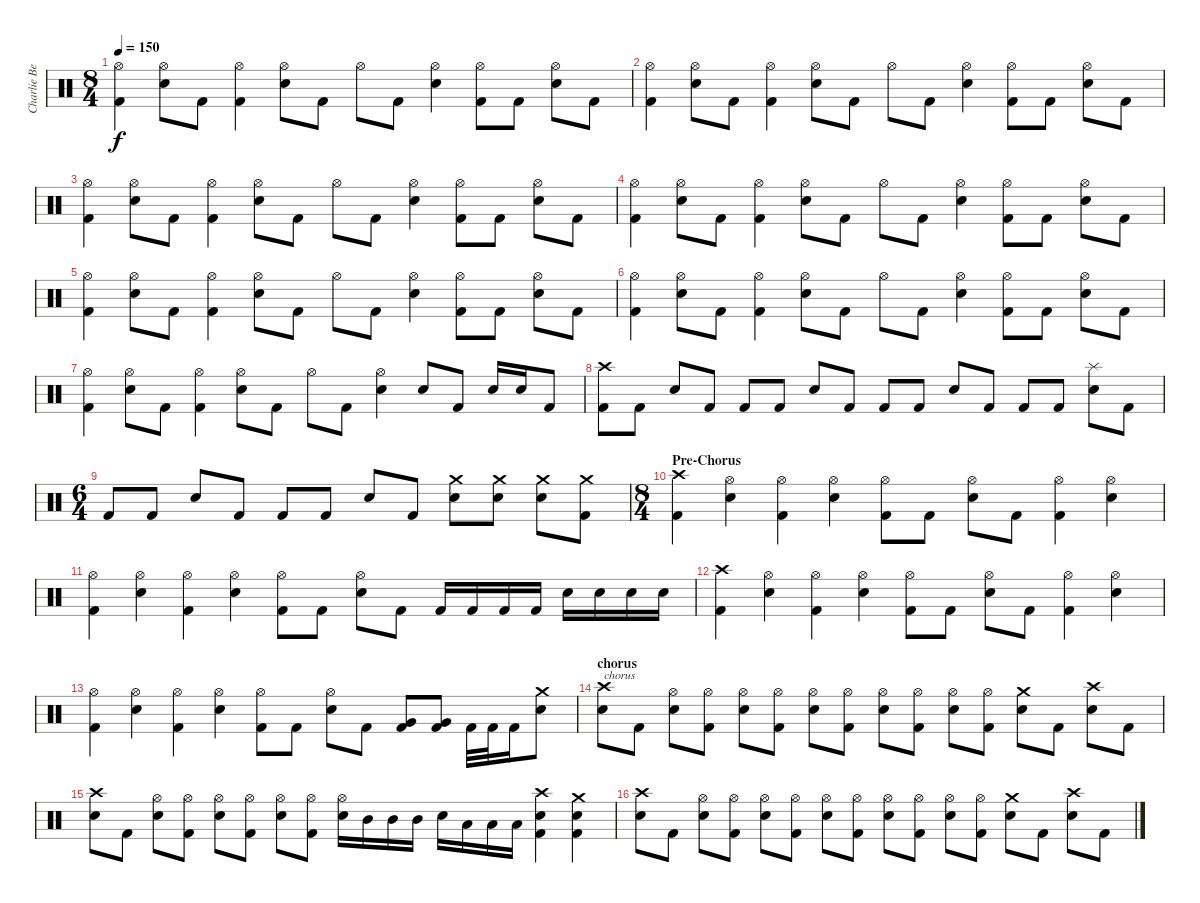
\track ("Charlie Benante" "Charlie Be") {instrument percussion}
\staff {score}
\articulation defaults
\ts (8 4)
\tempo 150
\clef neutral
\ks c
("Hi-Hat (open)" "Kick (hit) 2").4{dy f} ("Hi-Hat (open)" "Electric Snare (hit)").8 "Kick (hit) 2".8 ("Hi-Hat (open)" "Kick (hit) 2").4 ("Hi-Hat (open)" "Electric Snare (hit)").8 "Kick (hit) 2".8 "Hi-Hat (open)".8 "Kick (hit) 2".8 ("Hi-Hat (open)" "Electric Snare (hit)").4 ("Hi-Hat (open)" "Kick (hit) 2").8 "Kick (hit) 2".8 ("Hi-Hat (open)" "Electric Snare (hit)").8 "Kick (hit) 2".8 |
("Hi-Hat (open)" "Kick (hit) 2").4 ("Hi-Hat (open)" "Electric Snare (hit)").8 "Kick (hit) 2".8 ("Hi-Hat (open)" "Kick (hit) 2").4 ("Hi-Hat (open)" "Electric Snare (hit)").8 "Kick (hit) 2".8 "Hi-Hat (open)".8 "Kick (hit) 2".8 ("Hi-Hat (open)" "Electric Snare (hit)").4 ("Hi-Hat (open)" "Kick (hit) 2").8 "Kick (hit) 2".8 ("Hi-Hat (open)" "Electric Snare (hit)").8 "Kick (hit) 2".8 |
("Hi-Hat (open)" "Kick (hit) 2").4 ("Hi-Hat (open)" "Electric Snare (hit)").8 "Kick (hit) 2".8 ("Hi-Hat (open)" "Kick (hit) 2").4 ("Hi-Hat (open)" "Electric Snare (hit)").8 "Kick (hit) 2".8 "Hi-Hat (open)".8 "Kick (hit) 2".8 ("Hi-Hat (open)" "Electric Snare (hit)").4 ("Hi-Hat (open)" "Kick (hit) 2").8 "Kick (hit) 2".8 ("Hi-Hat (open)" "Electric Snare (hit)").8 "Kick (hit) 2".8 |
("Hi-Hat (open)" "Kick (hit) 2").4 ("Hi-Hat (open)" "Electric Snare (hit)").8 "Kick (hit) 2".8 ("Hi-Hat (open)" "Kick (hit) 2").4 ("Hi-Hat (open)" "Electric Snare (hit)").8 "Kick (hit) 2".8 "Hi-Hat (open)".8 "Kick (hit) 2".8 ("Hi-Hat (open)" "Electric Snare (hit)").4 ("Hi-Hat (open)" "Kick (hit) 2").8 "Kick (hit) 2".8 ("Hi-Hat (open)" "Electric Snare (hit)").8 "Kick (hit) 2".8 |
("Hi-Hat (open)" "Kick (hit) 2").4 ("Hi-Hat (open)" "Electric Snare (hit)").8 "Kick (hit) 2".8 ("Hi-Hat (open)" "Kick (hit) 2").4 ("Hi-Hat (open)" "Electric Snare (hit)").8 "Kick (hit) 2".8 "Hi-Hat (open)".8 "Kick (hit) 2".8 ("Hi-Hat (open)" "Electric Snare (hit)").4 ("Hi-Hat (open)" "Kick (hit) 2").8 "Kick (hit) 2".8 ("Hi-Hat (open)" "Electric Snare (hit)").8 "Kick (hit) 2".8 |
("Hi-Hat (open)" "Kick (hit) 2").4 ("Hi-Hat (open)" "Electric Snare (hit)").8 "Kick (hit) 2".8 ("Hi-Hat (open)" "Kick (hit) 2").4 ("Hi-Hat (open)" "Electric Snare (hit)").8 "Kick (hit) 2".8 "Hi-Hat (open)".8 "Kick (hit) 2".8 ("Hi-Hat (open)" "Electric Snare (hit)").4 ("Hi-Hat (open)" "Kick (hit) 2").8 "Kick (hit) 2".8 ("Hi-Hat (open)" "Electric Snare (hit)").8 "Kick (hit) 2".8 |
("Hi-Hat (open)" "Kick (hit) 2").4 ("Hi-Hat (open)" "Electric Snare (hit)").8 "Kick (hit) 2".8 ("Hi-Hat (open)" "Kick (hit) 2").4 ("Hi-Hat (open)" "Electric Snare (hit)").8 "Kick (hit) 2".8 "Hi-Hat (open)".8 "Kick (hit) 2".8 ("Hi-Hat (open)" "Electric Snare (hit)").4 "Electric Snare (hit)".8 "Kick (hit) 2".8 "Electric Snare (hit)".16 "Electric Snare (hit)".16 "Kick (hit) 2".8 |
("Crash high (hit)" "Kick (hit) 2").8 "Kick (hit) 2".8 "Electric Snare (hit)".8 "Kick (hit) 2".8 "Kick (hit) 2".8 "Kick (hit) 2".8 "Electric Snare (hit)".8 "Kick (hit) 2".8 "Kick (hit) 2".8 "Kick (hit) 2".8 "Electric Snare (hit)".8 "Kick (hit) 2".8 "Kick (hit) 2".8 "Kick (hit) 2".8 ("Splash (hit)" "Electric Snare (hit)").8 "Kick (hit) 2".8 |
\ts (6 4)
"Kick (hit) 2".8 "Kick (hit) 2".8 "Electric Snare (hit)".8 "Kick (hit) 2".8 "Kick (hit) 2".8 "Kick (hit) 2".8 "Electric Snare (hit)".8 "Kick (hit) 2".8 ("Crash medium (hit)" "Electric Snare (hit)").8 ("Crash medium (hit)" "Electric Snare (hit)").8 ("Crash medium (hit)" "Electric Snare (hit)").8 ("Crash medium (hit)" "Kick (hit) 2").8 |
\ts (8 4)
\section ("" "Pre-Chorus")
("Crash high (hit)" "Kick (hit) 2").4 ("Hi-Hat (open)" "Electric Snare (hit)").4 ("Hi-Hat (open)" "Kick (hit) 2").4 ("Hi-Hat (open)" "Electric Snare (hit)").4 ("Hi-Hat (open)" "Kick (hit) 2").8 "Kick (hit) 2".8 ("Hi-Hat (open)" "Electric Snare (hit)").8 "Kick (hit) 2".8 ("Hi-Hat (open)" "Kick (hit) 2").4 ("Hi-Hat (open)" "Electric Snare (hit)").4 |
("Hi-Hat (open)" "Kick (hit) 2").4 ("Hi-Hat (open)" "Electric Snare (hit)").4 ("Hi-Hat (open)" "Kick (hit) 2").4 ("Hi-Hat (open)" "Electric Snare (hit)").4 ("Hi-Hat (open)" "Kick (hit) 2").8 "Kick (hit) 2".8 ("Hi-Hat (open)" "Electric Snare (hit)").8 "Kick (hit) 2".8 "Kick (hit) 2".16 "Kick (hit) 2".16 "Kick (hit) 2".16 "Kick (hit) 2".16 "Electric Snare (hit)".16 "Electric Snare (hit)".16 "Electric Snare (hit)".16 "Electric Snare (hit)".16 |
("Crash high (hit)" "Kick (hit) 2").4 ("Hi-Hat (open)" "Electric Snare (hit)").4 ("Hi-Hat (open)" "Kick (hit) 2").4 ("Hi-Hat (open)" "Electric Snare (hit)").4 ("Hi-Hat (open)" "Kick (hit) 2").8 "Kick (hit) 2".8 ("Hi-Hat (open)" "Electric Snare (hit)").8 "Kick (hit) 2".8 ("Hi-Hat (open)" "Kick (hit) 2").4 ("Hi-Hat (open)" "Electric Snare (hit)").4 |
("Hi-Hat (open)" "Kick (hit) 2").4 ("Hi-Hat (open)" "Electric Snare (hit)").4 ("Hi-Hat (open)" "Kick (hit) 2").4 ("Hi-Hat (open)" "Electric Snare (hit)").4 ("Hi-Hat (open)" "Kick (hit) 2").8 "Kick (hit) 2".8 ("Hi-Hat (open)" "Electric Snare (hit)").8 "Kick (hit) 2".8 ("Very Low Tom (hit)" "Kick (hit) 2").8 ("Very Low Tom (hit)" "Kick (hit) 2").8 "Kick (hit) 2".32 "Kick (hit) 2".32 "Kick (hit) 2".16 ("Crash medium (hit)" "Electric Snare (hit)").8 |
\section ("" "chorus")
("Crash high (hit)" "Electric Snare (hit)").8{txt "chorus"} "Kick (hit) 2".8 ("Hi-Hat (open)" "Electric Snare (hit)").8 ("Hi-Hat (open)" "Kick (hit) 2").8 ("Hi-Hat (open)" "Electric Snare (hit)").8 ("Hi-Hat (open)" "Kick (hit) 2").8 ("Hi-Hat (open)" "Electric Snare (hit)").8 ("Hi-Hat (open)" "Kick (hit) 2").8 ("Hi-Hat (open)" "Electric Snare (hit)").8 ("Hi-Hat (open)" "Kick (hit) 2").8 ("Hi-Hat (open)" "Electric Snare (hit)").8 ("Hi-Hat (open)" "Kick (hit) 2").8 ("Crash medium (hit)" "Electric Snare (hit)").8 "Kick (hit) 2".8 ("Crash high (hit)" "Electric Snare (hit)").8 "Kick (hit) 2".8 |
("Crash high (hit)" "Electric Snare (hit)").8 "Kick (hit) 2".8 ("Hi-Hat (open)" "Electric Snare (hit)").8 ("Hi-Hat (open)" "Kick (hit) 2").8 ("Hi-Hat (open)" "Electric Snare (hit)").8 ("Hi-Hat (open)" "Kick (hit) 2").8 ("Hi-Hat (open)" "Electric Snare (hit)").8 ("Hi-Hat (open)" "Kick (hit) 2").8 ("Hi-Hat (open)" "Electric Snare (hit)").16 "Mid Tom (hit)".16 "Mid Tom (hit)".16 "Mid Tom (hit)".16 "Electric Snare (hit)".16 "Low Tom (hit)".16 "Low Tom (hit)".16 "Low Tom (hit)".16 ("Crash high (hit)" "Electric Snare (hit)" "Kick (hit) 2").4 ("Crash medium (hit)" "Electric Snare (hit)" "Kick (hit) 2").4 |
("Crash high (hit)" "Electric Snare (hit)").8 "Kick (hit) 2".8 ("Hi-Hat (open)" "Electric Snare (hit)").8 ("Hi-Hat (open)" "Kick (hit) 2").8 ("Hi-Hat (open)" "Electric Snare (hit)").8 ("Hi-Hat (open)" "Kick (hit) 2").8 ("Hi-Hat (open)" "Electric Snare (hit)").8 ("Hi-Hat (open)" "Kick (hit) 2").8 ("Hi-Hat (open)" "Electric Snare (hit)").8 ("Hi-Hat (open)" "Kick (hit) 2").8 ("Hi-Hat (open)" "Electric Snare (hit)").8 ("Hi-Hat (open)" "Kick (hit) 2").8 ("Crash medium (hit)" "Electric Snare (hit)").8 "Kick (hit) 2".8 ("Crash high (hit)" "Electric Snare (hit)").8 "Kick (hit) 2".8
